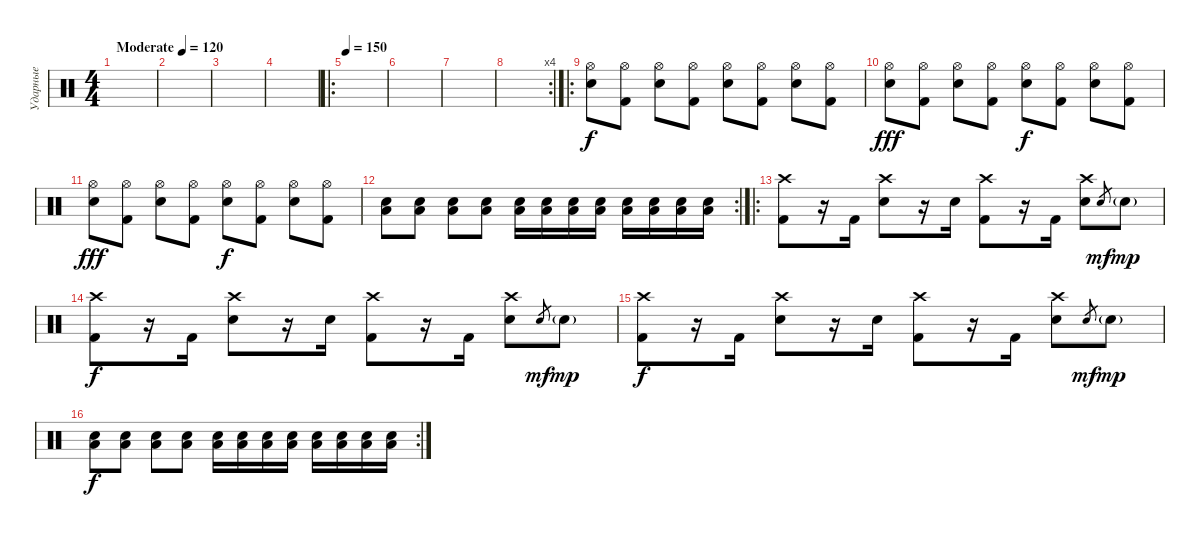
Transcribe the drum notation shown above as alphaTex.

\track ("Ударные" "Ударные") {instrument percussion}
\staff {score}
\articulation defaults
\ts (4 4)
\tempo (120 "Moderate")
\tempo 150
\tempo (120 "Moderate")
\clef neutral
\ks c
|
|
|
|
\ro
\tempo 150
|
|
|
\rc 4
|
\ro
("Hi-Hat (open)" "Snare (hit) 2").8 ("Hi-Hat (open)" "Kick (hit) 2").8 ("Hi-Hat (open)" "Snare (hit) 2").8 ("Hi-Hat (open)" "Kick (hit) 2").8 ("Hi-Hat (open)" "Snare (hit) 2").8{dy f} ("Hi-Hat (open)" "Kick (hit) 2").8 ("Hi-Hat (open)" "Snare (hit) 2").8 ("Hi-Hat (open)" "Kick (hit) 2").8 |
("Hi-Hat (open)" "Snare (hit) 2").8{dy fff} ("Hi-Hat (open)" "Kick (hit) 2").8 ("Hi-Hat (open)" "Snare (hit) 2").8 ("Hi-Hat (open)" "Kick (hit) 2").8 ("Hi-Hat (open)" "Snare (hit) 2").8{dy f} ("Hi-Hat (open)" "Kick (hit) 2").8 ("Hi-Hat (open)" "Snare (hit) 2").8 ("Hi-Hat (open)" "Kick (hit) 2").8 |
("Hi-Hat (open)" "Snare (hit) 2").8{dy fff} ("Hi-Hat (open)" "Kick (hit) 2").8 ("Hi-Hat (open)" "Snare (hit) 2").8 ("Hi-Hat (open)" "Kick (hit) 2").8 ("Hi-Hat (open)" "Snare (hit) 2").8{dy f} ("Hi-Hat (open)" "Kick (hit) 2").8 ("Hi-Hat (open)" "Snare (hit) 2").8 ("Hi-Hat (open)" "Kick (hit) 2").8 |
\rc 2
("Low Tom (hit)" "Snare (hit) 2").8 ("Low Tom (hit)" "Snare (hit) 2").8 ("Low Tom (hit)" "Snare (hit) 2").8 ("Low Tom (hit)" "Snare (hit) 2").8 ("Low Tom (hit)" "Snare (hit) 2").16 ("Low Tom (hit)" "Snare (hit) 2").16 ("Low Tom (hit)" "Snare (hit) 2").16 ("Low Tom (hit)" "Snare (hit) 2").16 ("Low Tom (hit)" "Snare (hit) 2").16 ("Low Tom (hit)" "Snare (hit) 2").16 ("Low Tom (hit)" "Snare (hit) 2").16 ("Low Tom (hit)" "Snare (hit) 2").16 |
\ro
("Crash high (hit)" "Kick (hit) 2").8 r.16 "Kick (hit) 2".16 ("Crash high (hit)" "Electric Snare (hit)").8 r.16 "Electric Snare (hit)".16 ("Crash high (hit)" "Kick (hit) 2").8 r.16 "Kick (hit) 2".16 ("Crash high (hit)" "Electric Snare (hit)").8 "Electric Snare (hit)".8{gr dy mf} "Electric Snare (hit)"{g}.8{dy mp} |
("Crash high (hit)" "Kick (hit) 2").8{dy f} r.16 "Kick (hit) 2".16 ("Crash high (hit)" "Electric Snare (hit)").8 r.16 "Electric Snare (hit)".16 ("Crash high (hit)" "Kick (hit) 2").8 r.16 "Kick (hit) 2".16 ("Crash high (hit)" "Electric Snare (hit)").8 "Electric Snare (hit)".8{gr dy mf} "Electric Snare (hit)"{g}.8{dy mp} |
("Crash high (hit)" "Kick (hit) 2").8{dy f} r.16 "Kick (hit) 2".16 ("Crash high (hit)" "Electric Snare (hit)").8 r.16 "Electric Snare (hit)".16 ("Crash high (hit)" "Kick (hit) 2").8 r.16 "Kick (hit) 2".16 ("Crash high (hit)" "Electric Snare (hit)").8 "Electric Snare (hit)".8{gr dy mf} "Electric Snare (hit)"{g}.8{dy mp} |
\rc 2
("Low Tom (hit)" "Snare (hit) 2").8{dy f} ("Low Tom (hit)" "Snare (hit) 2").8 ("Low Tom (hit)" "Snare (hit) 2").8 ("Low Tom (hit)" "Snare (hit) 2").8 ("Low Tom (hit)" "Snare (hit) 2").16 ("Low Tom (hit)" "Snare (hit) 2").16 ("Low Tom (hit)" "Snare (hit) 2").16 ("Low Tom (hit)" "Snare (hit) 2").16 ("Low Tom (hit)" "Snare (hit) 2").16 ("Low Tom (hit)" "Snare (hit) 2").16 ("Low Tom (hit)" "Snare (hit) 2").16 ("Low Tom (hit)" "Snare (hit) 2").16
